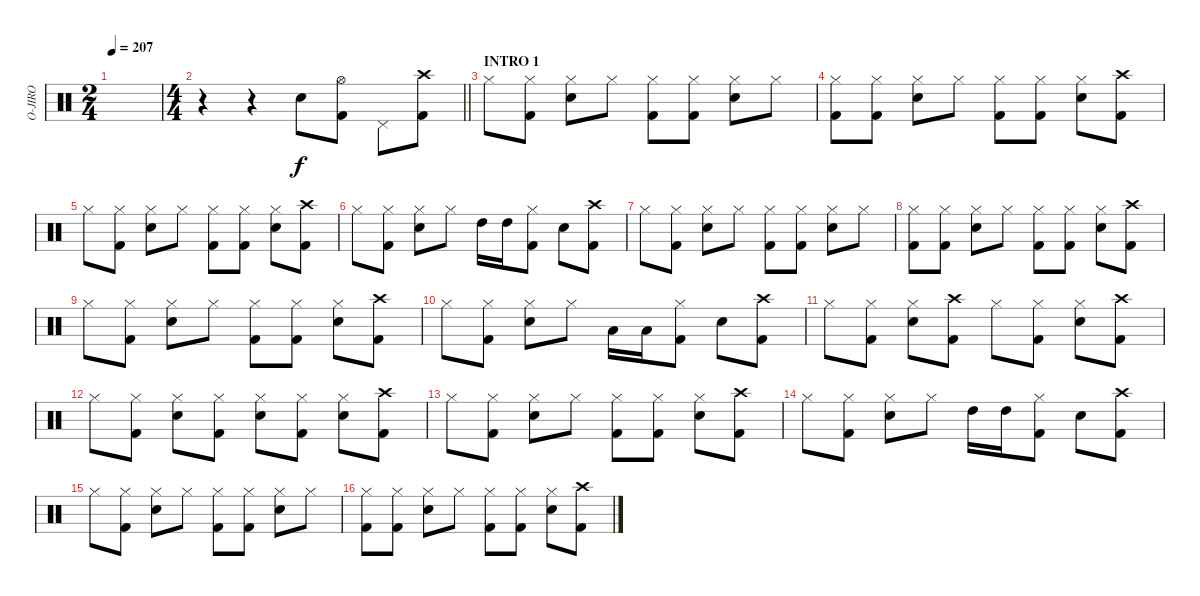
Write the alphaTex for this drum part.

\track ("O-JIRO" "O-JIRO") {instrument percussion}
\staff {score}
\articulation defaults
\ts (2 4)
\tempo 207
\clef neutral
\ks c
|
\ts (4 4)
\barLineRight lightlight
r.4 r.4 "Snare (hit) 2".8 ("Hi-Hat (open)" "Kick (hit) 2").8 "Pedal Hi-Hat (hit)".8 ("Crash high (hit)" "Kick (hit) 2").8 |
\section ("" "INTRO 1")
"Hi-Hat (closed)".8 ("Hi-Hat (closed)" "Kick (hit) 2").8 ("Hi-Hat (closed)" "Snare (hit) 2").8 "Hi-Hat (closed)".8 ("Hi-Hat (closed)" "Kick (hit) 2").8 ("Hi-Hat (closed)" "Kick (hit) 2").8 ("Hi-Hat (closed)" "Snare (hit) 2").8 "Hi-Hat (closed)".8 |
("Hi-Hat (closed)" "Kick (hit) 2").8 ("Hi-Hat (closed)" "Kick (hit) 2").8 ("Hi-Hat (closed)" "Snare (hit) 2").8 "Hi-Hat (closed)".8 ("Hi-Hat (closed)" "Kick (hit) 2").8 ("Hi-Hat (closed)" "Kick (hit) 2").8 ("Hi-Hat (closed)" "Snare (hit) 2").8 ("Crash high (hit)" "Kick (hit) 2").8 |
"Hi-Hat (closed)".8 ("Hi-Hat (closed)" "Kick (hit) 2").8 ("Hi-Hat (closed)" "Snare (hit) 2").8 "Hi-Hat (closed)".8 ("Hi-Hat (closed)" "Kick (hit) 2").8 ("Hi-Hat (closed)" "Kick (hit) 2").8 ("Hi-Hat (closed)" "Snare (hit) 2").8 ("Crash high (hit)" "Kick (hit) 2").8 |
"Hi-Hat (closed)".8 ("Hi-Hat (closed)" "Kick (hit) 2").8 ("Hi-Hat (closed)" "Snare (hit) 2").8 "Hi-Hat (closed)".8 "High Tom (hit)".16 "High Tom (hit)".16 ("Hi-Hat (closed)" "Kick (hit) 2").8 "Snare (hit) 2".8 ("Crash high (hit)" "Kick (hit) 2").8 |
"Hi-Hat (closed)".8 ("Hi-Hat (closed)" "Kick (hit) 2").8 ("Hi-Hat (closed)" "Snare (hit) 2").8 "Hi-Hat (closed)".8 ("Hi-Hat (closed)" "Kick (hit) 2").8 ("Hi-Hat (closed)" "Kick (hit) 2").8 ("Hi-Hat (closed)" "Snare (hit) 2").8 "Hi-Hat (closed)".8 |
("Hi-Hat (closed)" "Kick (hit) 2").8 ("Hi-Hat (closed)" "Kick (hit) 2").8 ("Hi-Hat (closed)" "Snare (hit) 2").8 "Hi-Hat (closed)".8 ("Hi-Hat (closed)" "Kick (hit) 2").8 ("Hi-Hat (closed)" "Kick (hit) 2").8 ("Hi-Hat (closed)" "Snare (hit) 2").8 ("Crash high (hit)" "Kick (hit) 2").8 |
"Hi-Hat (closed)".8 ("Hi-Hat (closed)" "Kick (hit) 2").8 ("Hi-Hat (closed)" "Snare (hit) 2").8 "Hi-Hat (closed)".8 ("Hi-Hat (closed)" "Kick (hit) 2").8 ("Hi-Hat (closed)" "Kick (hit) 2").8 ("Hi-Hat (closed)" "Snare (hit) 2").8 ("Crash high (hit)" "Kick (hit) 2").8 |
"Hi-Hat (closed)".8 ("Hi-Hat (closed)" "Kick (hit) 2").8 ("Hi-Hat (closed)" "Snare (hit) 2").8 "Hi-Hat (closed)".8 "Low Tom (hit)".16 "Low Tom (hit)".16 ("Hi-Hat (closed)" "Kick (hit) 2").8 "Snare (hit) 2".8 ("Crash high (hit)" "Kick (hit) 2").8 |
"Hi-Hat (closed)".8 ("Hi-Hat (closed)" "Kick (hit) 2").8 ("Hi-Hat (closed)" "Snare (hit) 2").8 ("Crash high (hit)" "Kick (hit) 2").8 "Hi-Hat (closed)".8 ("Hi-Hat (closed)" "Kick (hit) 2").8 ("Hi-Hat (closed)" "Snare (hit) 2").8 ("Crash high (hit)" "Kick (hit) 2").8 |
"Hi-Hat (closed)".8 ("Hi-Hat (closed)" "Kick (hit) 2").8 ("Hi-Hat (closed)" "Snare (hit) 2").8 ("Hi-Hat (closed)" "Kick (hit) 2").8 ("Hi-Hat (closed)" "Snare (hit) 2").8 ("Hi-Hat (closed)" "Kick (hit) 2").8 ("Hi-Hat (closed)" "Snare (hit) 2").8 ("Crash high (hit)" "Kick (hit) 2").8 |
"Hi-Hat (closed)".8 ("Hi-Hat (closed)" "Kick (hit) 2").8 ("Hi-Hat (closed)" "Snare (hit) 2").8 "Hi-Hat (closed)".8 ("Hi-Hat (closed)" "Kick (hit) 2").8 ("Hi-Hat (closed)" "Kick (hit) 2").8 ("Hi-Hat (closed)" "Snare (hit) 2").8 ("Crash high (hit)" "Kick (hit) 2").8 |
"Hi-Hat (closed)".8 ("Hi-Hat (closed)" "Kick (hit) 2").8 ("Hi-Hat (closed)" "Snare (hit) 2").8 "Hi-Hat (closed)".8 "High Tom (hit)".16 "High Tom (hit)".16 ("Hi-Hat (closed)" "Kick (hit) 2").8 "Snare (hit) 2".8 ("Crash high (hit)" "Kick (hit) 2").8 |
"Hi-Hat (closed)".8 ("Hi-Hat (closed)" "Kick (hit) 2").8 ("Hi-Hat (closed)" "Snare (hit) 2").8 "Hi-Hat (closed)".8 ("Hi-Hat (closed)" "Kick (hit) 2").8 ("Hi-Hat (closed)" "Kick (hit) 2").8 ("Hi-Hat (closed)" "Snare (hit) 2").8 "Hi-Hat (closed)".8 |
("Hi-Hat (closed)" "Kick (hit) 2").8 ("Hi-Hat (closed)" "Kick (hit) 2").8 ("Hi-Hat (closed)" "Snare (hit) 2").8 "Hi-Hat (closed)".8 ("Hi-Hat (closed)" "Kick (hit) 2").8 ("Hi-Hat (closed)" "Kick (hit) 2").8 ("Hi-Hat (closed)" "Snare (hit) 2").8 ("Crash high (hit)" "Kick (hit) 2").8
